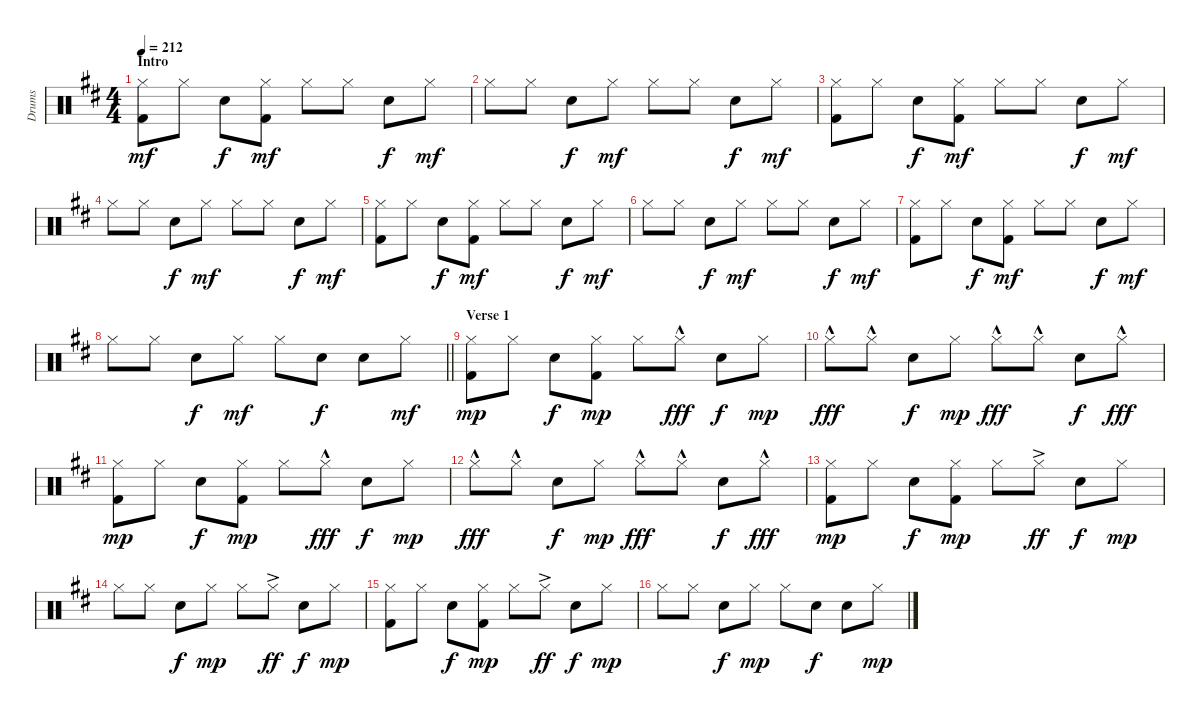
\track ("Drums" "Drums") {instrument percussion}
\staff {score}
\articulation defaults
\ts (4 4)
\section ("" "Intro")
\tempo 212
\clef neutral
\ks d
("Hi-Hat (closed)" "Kick (hit) 2").8{dy mf} "Hi-Hat (closed)".8 "Electric Snare (hit)".8{dy f} ("Hi-Hat (closed)" "Kick (hit) 2").8{dy mf} "Hi-Hat (closed)".8 "Hi-Hat (closed)".8 "Electric Snare (hit)".8{dy f} "Hi-Hat (closed)".8{dy mf} |
"Hi-Hat (closed)".8 "Hi-Hat (closed)".8 "Electric Snare (hit)".8{dy f} "Hi-Hat (closed)".8{dy mf} "Hi-Hat (closed)".8 "Hi-Hat (closed)".8 "Electric Snare (hit)".8{dy f} "Hi-Hat (closed)".8{dy mf} |
("Hi-Hat (closed)" "Kick (hit) 2").8 "Hi-Hat (closed)".8 "Electric Snare (hit)".8{dy f} ("Hi-Hat (closed)" "Kick (hit) 2").8{dy mf} "Hi-Hat (closed)".8 "Hi-Hat (closed)".8 "Electric Snare (hit)".8{dy f} "Hi-Hat (closed)".8{dy mf} |
"Hi-Hat (closed)".8 "Hi-Hat (closed)".8 "Electric Snare (hit)".8{dy f} "Hi-Hat (closed)".8{dy mf} "Hi-Hat (closed)".8 "Hi-Hat (closed)".8 "Electric Snare (hit)".8{dy f} "Hi-Hat (closed)".8{dy mf} |
("Hi-Hat (closed)" "Kick (hit) 2").8 "Hi-Hat (closed)".8 "Electric Snare (hit)".8{dy f} ("Hi-Hat (closed)" "Kick (hit) 2").8{dy mf} "Hi-Hat (closed)".8 "Hi-Hat (closed)".8 "Electric Snare (hit)".8{dy f} "Hi-Hat (closed)".8{dy mf} |
"Hi-Hat (closed)".8 "Hi-Hat (closed)".8 "Electric Snare (hit)".8{dy f} "Hi-Hat (closed)".8{dy mf} "Hi-Hat (closed)".8 "Hi-Hat (closed)".8 "Electric Snare (hit)".8{dy f} "Hi-Hat (closed)".8{dy mf} |
("Hi-Hat (closed)" "Kick (hit) 2").8 "Hi-Hat (closed)".8 "Electric Snare (hit)".8{dy f} ("Hi-Hat (closed)" "Kick (hit) 2").8{dy mf} "Hi-Hat (closed)".8 "Hi-Hat (closed)".8 "Electric Snare (hit)".8{dy f} "Hi-Hat (closed)".8{dy mf} |
\barLineRight lightlight "Hi-Hat (closed)".8 "Hi-Hat (closed)".8 "Electric Snare (hit)".8{dy f} "Hi-Hat (closed)".8{dy mf} "Hi-Hat (closed)".8 "Electric Snare (hit)".8{dy f} "Electric Snare (hit)".8 "Hi-Hat (closed)".8{dy mf}
|
\section ("" "Verse 1")
("Hi-Hat (closed)" "Kick (hit) 2").8{dy mp} "Hi-Hat (closed)".8 "Electric Snare (hit)".8{dy f} ("Hi-Hat (closed)" "Kick (hit) 2").8{dy mp} "Hi-Hat (closed)".8 "Hi-Hat (closed)"{hac}.8{dy fff} "Electric Snare (hit)".8{dy f} "Hi-Hat (closed)".8{dy mp} |
"Hi-Hat (closed)"{hac}.8{dy fff} "Hi-Hat (closed)"{hac}.8 "Electric Snare (hit)".8{dy f} "Hi-Hat (closed)".8{dy mp} "Hi-Hat (closed)"{hac}.8{dy fff} "Hi-Hat (closed)"{hac}.8 "Electric Snare (hit)".8{dy f} "Hi-Hat (closed)"{hac}.8{dy fff} |
("Hi-Hat (closed)" "Kick (hit) 2").8{dy mp} "Hi-Hat (closed)".8 "Electric Snare (hit)".8{dy f} ("Hi-Hat (closed)" "Kick (hit) 2").8{dy mp} "Hi-Hat (closed)".8 "Hi-Hat (closed)"{hac}.8{dy fff} "Electric Snare (hit)".8{dy f} "Hi-Hat (closed)".8{dy mp} |
"Hi-Hat (closed)"{hac}.8{dy fff} "Hi-Hat (closed)"{hac}.8 "Electric Snare (hit)".8{dy f} "Hi-Hat (closed)".8{dy mp} "Hi-Hat (closed)"{hac}.8{dy fff} "Hi-Hat (closed)"{hac}.8 "Electric Snare (hit)".8{dy f} "Hi-Hat (closed)"{hac}.8{dy fff} |
("Hi-Hat (closed)" "Kick (hit) 2").8{dy mp} "Hi-Hat (closed)".8 "Electric Snare (hit)".8{dy f} ("Hi-Hat (closed)" "Kick (hit) 2").8{dy mp} "Hi-Hat (closed)".8 "Hi-Hat (closed)"{ac}.8{dy ff} "Electric Snare (hit)".8{dy f} "Hi-Hat (closed)".8{dy mp} |
"Hi-Hat (closed)".8 "Hi-Hat (closed)".8 "Electric Snare (hit)".8{dy f} "Hi-Hat (closed)".8{dy mp} "Hi-Hat (closed)".8 "Hi-Hat (closed)"{ac}.8{dy ff} "Electric Snare (hit)".8{dy f} "Hi-Hat (closed)".8{dy mp} |
("Hi-Hat (closed)" "Kick (hit) 2").8 "Hi-Hat (closed)".8 "Electric Snare (hit)".8{dy f} ("Hi-Hat (closed)" "Kick (hit) 2").8{dy mp} "Hi-Hat (closed)".8 "Hi-Hat (closed)"{ac}.8{dy ff} "Electric Snare (hit)".8{dy f} "Hi-Hat (closed)".8{dy mp} |
"Hi-Hat (closed)".8 "Hi-Hat (closed)".8 "Electric Snare (hit)".8{dy f} "Hi-Hat (closed)".8{dy mp} "Hi-Hat (closed)".8 "Electric Snare (hit)".8{dy f} "Electric Snare (hit)".8 "Hi-Hat (closed)".8{dy mp}
